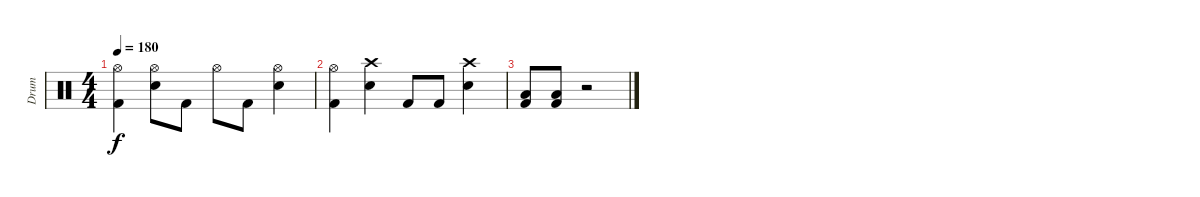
\track ("Drum" "Drum") {instrument percussion}
\staff {score}
\articulation defaults
\ts (4 4)
\tempo 180
\clef neutral
\ks c
("Hi-Hat (open)" "Kick (hit) 2").4{dy f} ("Hi-Hat (open)" "Electric Snare (hit)").8 "Kick (hit) 2".8 "Hi-Hat (open)".8 "Kick (hit) 2".8 ("Hi-Hat (open)" "Electric Snare (hit)").4 |
("Hi-Hat (open)" "Kick (hit) 2").4 ("Crash high (hit)" "Electric Snare (hit)").4 "Kick (hit) 2".8 "Kick (hit) 2".8 ("Crash high (hit)" "Electric Snare (hit)").4 |
("Kick (hit) 2" "Low Tom (hit)").8 ("Kick (hit) 2" "Low Tom (hit)").8 r.2
